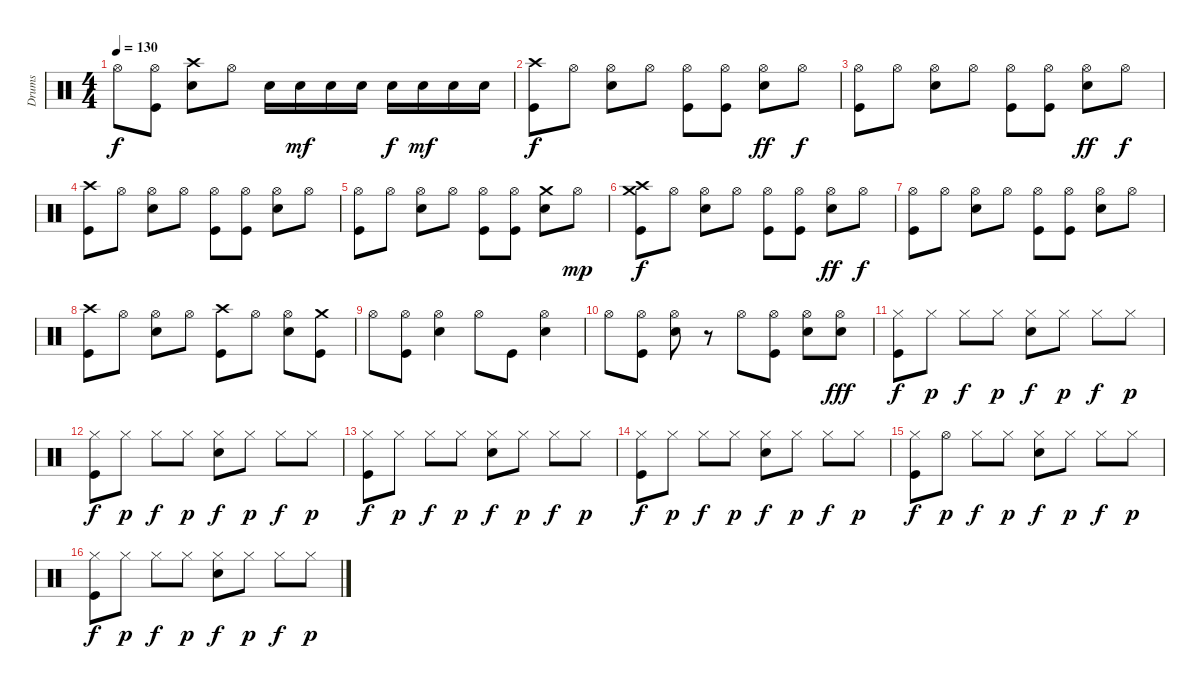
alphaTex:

\track ("Drums" "Drums") {instrument percussion}
\staff {score}
\articulation defaults
\ts (4 4)
\tempo 130
\clef neutral
\ks c "Hi-Hat (open)".8{dy f}
("Hi-Hat (open)" "Kick (hit)").8 ("Crash high (hit)" "Snare (hit) 2").8 "Hi-Hat (open)".8 "Snare (hit) 2".16 "Snare (hit) 2".16{dy mf} "Snare (hit) 2".16 "Snare (hit) 2".16 "Snare (hit) 2".16{dy f} "Snare (hit) 2".16{dy mf} "Snare (hit) 2".16 "Snare (hit) 2".16 |
("Crash high (hit)" "Kick (hit)").8{dy f} "Hi-Hat (open)".8 ("Hi-Hat (open)" "Snare (hit) 2").8 "Hi-Hat (open)".8 ("Hi-Hat (open)" "Kick (hit)").8 ("Hi-Hat (open)" "Kick (hit)").8 ("Hi-Hat (open)" "Snare (hit) 2").8{dy ff} "Hi-Hat (open)".8{dy f} |
("Hi-Hat (open)" "Kick (hit)").8 "Hi-Hat (open)".8 ("Hi-Hat (open)" "Snare (hit) 2").8 "Hi-Hat (open)".8 ("Hi-Hat (open)" "Kick (hit)").8 ("Hi-Hat (open)" "Kick (hit)").8 ("Hi-Hat (open)" "Snare (hit) 2").8{dy ff} "Hi-Hat (open)".8{dy f} |
("Crash high (hit)" "Kick (hit)").8 "Hi-Hat (open)".8 ("Hi-Hat (open)" "Snare (hit) 2").8 "Hi-Hat (open)".8 ("Hi-Hat (open)" "Kick (hit)").8 ("Hi-Hat (open)" "Kick (hit)").8 ("Hi-Hat (open)" "Snare (hit) 2").8 "Hi-Hat (open)".8 |
("Hi-Hat (open)" "Kick (hit)").8 "Hi-Hat (open)".8 ("Hi-Hat (open)" "Snare (hit) 2").8 "Hi-Hat (open)".8 ("Hi-Hat (open)" "Kick (hit)").8 ("Hi-Hat (open)" "Kick (hit)").8 ("Crash medium (hit)" "Snare (hit) 2").8 "Hi-Hat (open)".8{dy mp} |
("Crash high (hit)" "Crash medium (hit)" "Kick (hit)").8{dy f} "Hi-Hat (open)".8 ("Hi-Hat (open)" "Snare (hit) 2").8 "Hi-Hat (open)".8 ("Hi-Hat (open)" "Kick (hit)").8 ("Hi-Hat (open)" "Kick (hit)").8 ("Hi-Hat (open)" "Snare (hit) 2").8{dy ff} "Hi-Hat (open)".8{dy f} |
("Hi-Hat (open)" "Kick (hit)").8 "Hi-Hat (open)".8 ("Hi-Hat (open)" "Snare (hit) 2").8 "Hi-Hat (open)".8 ("Hi-Hat (open)" "Kick (hit)").8 ("Hi-Hat (open)" "Kick (hit)").8 ("Hi-Hat (open)" "Snare (hit) 2").8 "Hi-Hat (open)".8 |
("Crash high (hit)" "Kick (hit)").8 "Hi-Hat (open)".8 ("Hi-Hat (open)" "Snare (hit) 2").8 "Hi-Hat (open)".8 ("Crash high (hit)" "Kick (hit)").8 "Hi-Hat (open)".8 ("Hi-Hat (open)" "Snare (hit) 2").8 ("Crash medium (hit)" "Kick (hit)").8 |
"Hi-Hat (open)".8 ("Hi-Hat (open)" "Kick (hit)").8 ("Hi-Hat (open)" "Snare (hit) 2").4 "Hi-Hat (open)".8 "Kick (hit)".8 ("Hi-Hat (open)" "Snare (hit) 2").4 |
"Hi-Hat (open)".8 ("Hi-Hat (open)" "Kick (hit)").8 ("Hi-Hat (open)" "Snare (hit) 2").8 r.8 "Hi-Hat (open)".8 ("Hi-Hat (open)" "Kick (hit)").8 ("Hi-Hat (open)" "Snare (hit) 2").8 ("Hi-Hat (open)" "Snare (hit) 2").8{dy fff} |
("Hi-Hat (closed)" "Kick (hit)").8{dy f} "Hi-Hat (closed)".8{dy p} "Hi-Hat (closed)".8{dy f} "Hi-Hat (closed)".8{dy p} ("Hi-Hat (closed)" "Snare (hit) 2").8{dy f} "Hi-Hat (closed)".8{dy p} "Hi-Hat (closed)".8{dy f} "Hi-Hat (closed)".8{dy p} |
("Hi-Hat (closed)" "Kick (hit)").8{dy f} "Hi-Hat (closed)".8{dy p} "Hi-Hat (closed)".8{dy f} "Hi-Hat (closed)".8{dy p} ("Hi-Hat (closed)" "Snare (hit) 2").8{dy f} "Hi-Hat (closed)".8{dy p} "Hi-Hat (closed)".8{dy f} "Hi-Hat (closed)".8{dy p} |
("Hi-Hat (closed)" "Kick (hit)").8{dy f} "Hi-Hat (closed)".8{dy p} "Hi-Hat (closed)".8{dy f} "Hi-Hat (closed)".8{dy p} ("Hi-Hat (closed)" "Snare (hit) 2").8{dy f} "Hi-Hat (closed)".8{dy p} "Hi-Hat (closed)".8{dy f} "Hi-Hat (closed)".8{dy p} |
("Hi-Hat (closed)" "Kick (hit)").8{dy f} "Hi-Hat (closed)".8{dy p} "Hi-Hat (closed)".8{dy f} "Hi-Hat (closed)".8{dy p} ("Hi-Hat (closed)" "Snare (hit) 2").8{dy f} "Hi-Hat (closed)".8{dy p} "Hi-Hat (closed)".8{dy f} "Hi-Hat (closed)".8{dy p} |
("Hi-Hat (closed)" "Kick (hit)").8{dy f} "Hi-Hat (open)".8{dy p} "Hi-Hat (closed)".8{dy f} "Hi-Hat (closed)".8{dy p} ("Hi-Hat (closed)" "Snare (hit) 2").8{dy f} "Hi-Hat (closed)".8{dy p} "Hi-Hat (closed)".8{dy f} "Hi-Hat (closed)".8{dy p} |
("Hi-Hat (closed)" "Kick (hit)").8{dy f} "Hi-Hat (closed)".8{dy p} "Hi-Hat (closed)".8{dy f} "Hi-Hat (closed)".8{dy p} ("Hi-Hat (closed)" "Snare (hit) 2").8{dy f} "Hi-Hat (closed)".8{dy p} "Hi-Hat (closed)".8{dy f} "Hi-Hat (closed)".8{dy p}
